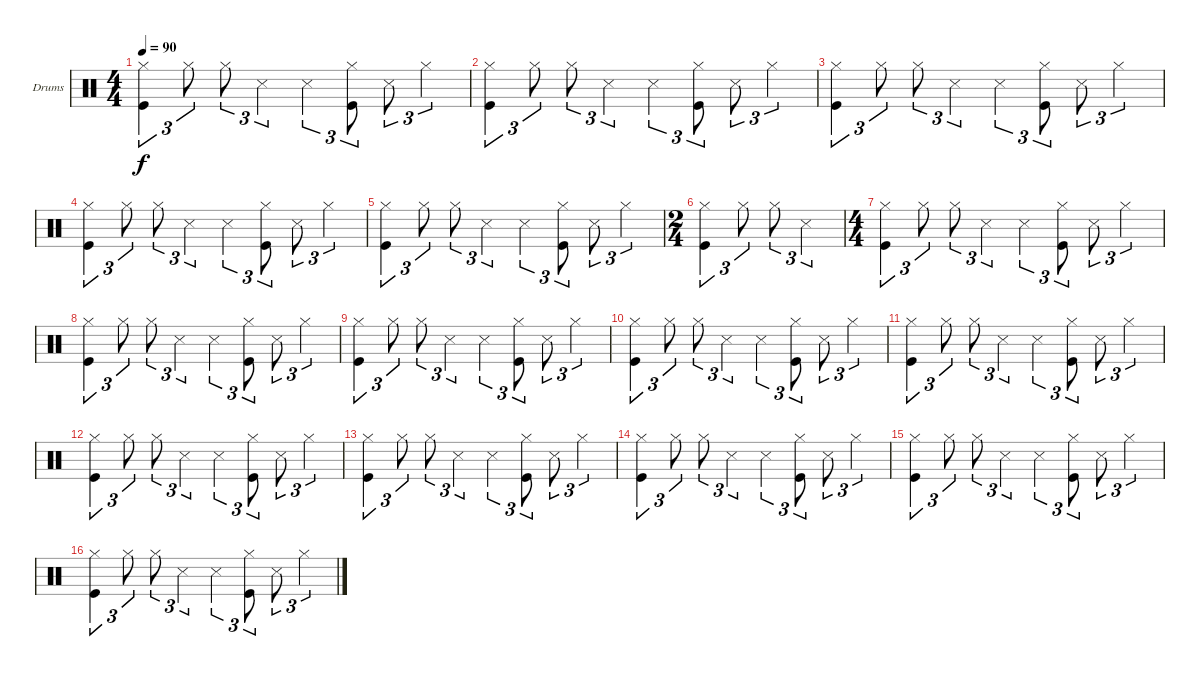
\defaultSystemsLayout 4
\bracketExtendMode groupsimilarinstruments
\firstSystemTrackNameOrientation horizontal
\otherSystemsTrackNameOrientation horizontal
\track ("Drumkit" "Drums") {instrument percussion}
\staff {score}
\articulation defaults
\ts (4 4)
\tempo 90
\clef neutral
\ks c
("Hi-Hat (closed)" "Kick (hit)").4{tu (3 2) dy f} "Hi-Hat (closed)".8{tu (3 2)} "Hi-Hat (closed)".8{tu (3 2)} "Snare (side stick) 3".4{tu (3 2)} "Snare (side stick) 3".4{tu (3 2)} ("Kick (hit)" "Hi-Hat (closed)").8{tu (3 2)} "Snare (side stick) 3".8{tu (3 2)} "Hi-Hat (closed)".4{tu (3 2)} |
("Hi-Hat (closed)" "Kick (hit)").4{tu (3 2)} "Hi-Hat (closed)".8{tu (3 2)} "Hi-Hat (closed)".8{tu (3 2)} "Snare (side stick) 3".4{tu (3 2)} "Snare (side stick) 3".4{tu (3 2)} ("Kick (hit)" "Hi-Hat (closed)").8{tu (3 2)} "Snare (side stick) 3".8{tu (3 2)} "Hi-Hat (closed)".4{tu (3 2)} |
("Hi-Hat (closed)" "Kick (hit)").4{tu (3 2)} "Hi-Hat (closed)".8{tu (3 2)} "Hi-Hat (closed)".8{tu (3 2)} "Snare (side stick) 3".4{tu (3 2)} "Snare (side stick) 3".4{tu (3 2)} ("Kick (hit)" "Hi-Hat (closed)").8{tu (3 2)} "Snare (side stick) 3".8{tu (3 2)} "Hi-Hat (closed)".4{tu (3 2)} |
("Hi-Hat (closed)" "Kick (hit)").4{tu (3 2)} "Hi-Hat (closed)".8{tu (3 2)} "Hi-Hat (closed)".8{tu (3 2)} "Snare (side stick) 3".4{tu (3 2)} "Snare (side stick) 3".4{tu (3 2)} ("Kick (hit)" "Hi-Hat (closed)").8{tu (3 2)} "Snare (side stick) 3".8{tu (3 2)} "Hi-Hat (closed)".4{tu (3 2)} |
("Hi-Hat (closed)" "Kick (hit)").4{tu (3 2)} "Hi-Hat (closed)".8{tu (3 2)} "Hi-Hat (closed)".8{tu (3 2)} "Snare (side stick) 3".4{tu (3 2)} "Snare (side stick) 3".4{tu (3 2)} ("Kick (hit)" "Hi-Hat (closed)").8{tu (3 2)} "Snare (side stick) 3".8{tu (3 2)} "Hi-Hat (closed)".4{tu (3 2)} |
\ts (2 4)
("Hi-Hat (closed)" "Kick (hit)").4{tu (3 2)} "Hi-Hat (closed)".8{tu (3 2)} "Hi-Hat (closed)".8{tu (3 2)} "Snare (side stick) 3".4{tu (3 2)} |
\ts (4 4)
("Hi-Hat (closed)" "Kick (hit)").4{tu (3 2)} "Hi-Hat (closed)".8{tu (3 2)} "Hi-Hat (closed)".8{tu (3 2)} "Snare (side stick) 3".4{tu (3 2)} "Snare (side stick) 3".4{tu (3 2)} ("Kick (hit)" "Hi-Hat (closed)").8{tu (3 2)} "Snare (side stick) 3".8{tu (3 2)} "Hi-Hat (closed)".4{tu (3 2)} |
("Hi-Hat (closed)" "Kick (hit)").4{tu (3 2)} "Hi-Hat (closed)".8{tu (3 2)} "Hi-Hat (closed)".8{tu (3 2)} "Snare (side stick) 3".4{tu (3 2)} "Snare (side stick) 3".4{tu (3 2)} ("Kick (hit)" "Hi-Hat (closed)").8{tu (3 2)} "Snare (side stick) 3".8{tu (3 2)} "Hi-Hat (closed)".4{tu (3 2)} |
("Hi-Hat (closed)" "Kick (hit)").4{tu (3 2)} "Hi-Hat (closed)".8{tu (3 2)} "Hi-Hat (closed)".8{tu (3 2)} "Snare (side stick) 3".4{tu (3 2)} "Snare (side stick) 3".4{tu (3 2)} ("Kick (hit)" "Hi-Hat (closed)").8{tu (3 2)} "Snare (side stick) 3".8{tu (3 2)} "Hi-Hat (closed)".4{tu (3 2)} |
("Hi-Hat (closed)" "Kick (hit)").4{tu (3 2)} "Hi-Hat (closed)".8{tu (3 2)} "Hi-Hat (closed)".8{tu (3 2)} "Snare (side stick) 3".4{tu (3 2)} "Snare (side stick) 3".4{tu (3 2)} ("Kick (hit)" "Hi-Hat (closed)").8{tu (3 2)} "Snare (side stick) 3".8{tu (3 2)} "Hi-Hat (closed)".4{tu (3 2)} |
("Hi-Hat (closed)" "Kick (hit)").4{tu (3 2)} "Hi-Hat (closed)".8{tu (3 2)} "Hi-Hat (closed)".8{tu (3 2)} "Snare (side stick) 3".4{tu (3 2)} "Snare (side stick) 3".4{tu (3 2)} ("Kick (hit)" "Hi-Hat (closed)").8{tu (3 2)} "Snare (side stick) 3".8{tu (3 2)} "Hi-Hat (closed)".4{tu (3 2)} |
("Hi-Hat (closed)" "Kick (hit)").4{tu (3 2)} "Hi-Hat (closed)".8{tu (3 2)} "Hi-Hat (closed)".8{tu (3 2)} "Snare (side stick) 3".4{tu (3 2)} "Snare (side stick) 3".4{tu (3 2)} ("Kick (hit)" "Hi-Hat (closed)").8{tu (3 2)} "Snare (side stick) 3".8{tu (3 2)} "Hi-Hat (closed)".4{tu (3 2)} |
("Hi-Hat (closed)" "Kick (hit)").4{tu (3 2)} "Hi-Hat (closed)".8{tu (3 2)} "Hi-Hat (closed)".8{tu (3 2)} "Snare (side stick) 3".4{tu (3 2)} "Snare (side stick) 3".4{tu (3 2)} ("Kick (hit)" "Hi-Hat (closed)").8{tu (3 2)} "Snare (side stick) 3".8{tu (3 2)} "Hi-Hat (closed)".4{tu (3 2)} |
("Hi-Hat (closed)" "Kick (hit)").4{tu (3 2)} "Hi-Hat (closed)".8{tu (3 2)} "Hi-Hat (closed)".8{tu (3 2)} "Snare (side stick) 3".4{tu (3 2)} "Snare (side stick) 3".4{tu (3 2)} ("Kick (hit)" "Hi-Hat (closed)").8{tu (3 2)} "Snare (side stick) 3".8{tu (3 2)} "Hi-Hat (closed)".4{tu (3 2)} |
("Hi-Hat (closed)" "Kick (hit)").4{tu (3 2)} "Hi-Hat (closed)".8{tu (3 2)} "Hi-Hat (closed)".8{tu (3 2)} "Snare (side stick) 3".4{tu (3 2)} "Snare (side stick) 3".4{tu (3 2)} ("Kick (hit)" "Hi-Hat (closed)").8{tu (3 2)} "Snare (side stick) 3".8{tu (3 2)} "Hi-Hat (closed)".4{tu (3 2)} |
("Hi-Hat (closed)" "Kick (hit)").4{tu (3 2)} "Hi-Hat (closed)".8{tu (3 2)} "Hi-Hat (closed)".8{tu (3 2)} "Snare (side stick) 3".4{tu (3 2)} "Snare (side stick) 3".4{tu (3 2)} ("Kick (hit)" "Hi-Hat (closed)").8{tu (3 2)} "Snare (side stick) 3".8{tu (3 2)} "Hi-Hat (closed)".4{tu (3 2)}
